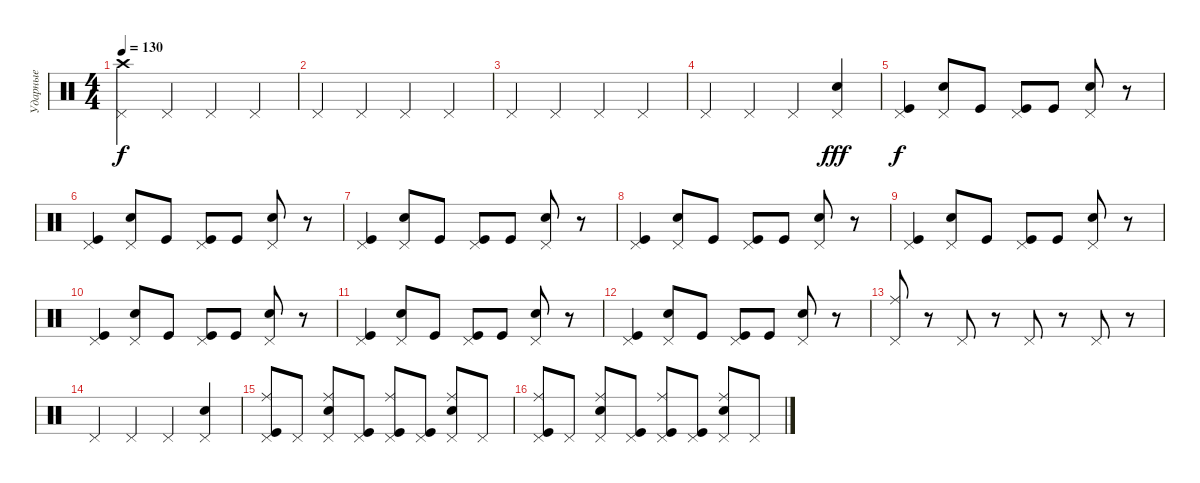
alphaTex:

\track ("Ударные" "Ударные") {instrument percussion}
\staff {score}
\articulation defaults
\ts (4 4)
\tempo 130
\clef neutral
\ks c
("Crash high (hit)" "Pedal Hi-Hat (hit)").4{dy f} "Pedal Hi-Hat (hit)".4 "Pedal Hi-Hat (hit)".4 "Pedal Hi-Hat (hit)".4 |
"Pedal Hi-Hat (hit)".4 "Pedal Hi-Hat (hit)".4 "Pedal Hi-Hat (hit)".4 "Pedal Hi-Hat (hit)".4 |
"Pedal Hi-Hat (hit)".4 "Pedal Hi-Hat (hit)".4 "Pedal Hi-Hat (hit)".4 "Pedal Hi-Hat (hit)".4 |
"Pedal Hi-Hat (hit)".4 "Pedal Hi-Hat (hit)".4 "Pedal Hi-Hat (hit)".4 ("Electric Snare (hit)" "Pedal Hi-Hat (hit)").4{dy fff} |
("Pedal Hi-Hat (hit)" "Kick (hit)").4{dy f} ("Pedal Hi-Hat (hit)" "Electric Snare (hit)").8 "Kick (hit)".8 ("Pedal Hi-Hat (hit)" "Kick (hit)").8 "Kick (hit)".8 ("Pedal Hi-Hat (hit)" "Electric Snare (hit)").8 r.8 |
("Pedal Hi-Hat (hit)" "Kick (hit)").4 ("Pedal Hi-Hat (hit)" "Electric Snare (hit)").8 "Kick (hit)".8 ("Pedal Hi-Hat (hit)" "Kick (hit)").8 "Kick (hit)".8 ("Pedal Hi-Hat (hit)" "Electric Snare (hit)").8 r.8 |
("Pedal Hi-Hat (hit)" "Kick (hit)").4 ("Pedal Hi-Hat (hit)" "Electric Snare (hit)").8 "Kick (hit)".8 ("Pedal Hi-Hat (hit)" "Kick (hit)").8 "Kick (hit)".8 ("Pedal Hi-Hat (hit)" "Electric Snare (hit)").8 r.8 |
("Pedal Hi-Hat (hit)" "Kick (hit)").4 ("Pedal Hi-Hat (hit)" "Electric Snare (hit)").8 "Kick (hit)".8 ("Pedal Hi-Hat (hit)" "Kick (hit)").8 "Kick (hit)".8 ("Pedal Hi-Hat (hit)" "Electric Snare (hit)").8 r.8 |
("Pedal Hi-Hat (hit)" "Kick (hit)").4 ("Pedal Hi-Hat (hit)" "Electric Snare (hit)").8 "Kick (hit)".8 ("Pedal Hi-Hat (hit)" "Kick (hit)").8 "Kick (hit)".8 ("Pedal Hi-Hat (hit)" "Electric Snare (hit)").8 r.8 |
("Pedal Hi-Hat (hit)" "Kick (hit)").4 ("Pedal Hi-Hat (hit)" "Electric Snare (hit)").8 "Kick (hit)".8 ("Pedal Hi-Hat (hit)" "Kick (hit)").8 "Kick (hit)".8 ("Pedal Hi-Hat (hit)" "Electric Snare (hit)").8 r.8 |
("Pedal Hi-Hat (hit)" "Kick (hit)").4 ("Pedal Hi-Hat (hit)" "Electric Snare (hit)").8 "Kick (hit)".8 ("Pedal Hi-Hat (hit)" "Kick (hit)").8 "Kick (hit)".8 ("Pedal Hi-Hat (hit)" "Electric Snare (hit)").8 r.8 |
("Pedal Hi-Hat (hit)" "Kick (hit)").4 ("Pedal Hi-Hat (hit)" "Electric Snare (hit)").8 "Kick (hit)".8 ("Pedal Hi-Hat (hit)" "Kick (hit)").8 "Kick (hit)".8 ("Pedal Hi-Hat (hit)" "Electric Snare (hit)").8 r.8 |
("Pedal Hi-Hat (hit)" "Ride (middle)").8 r.8 "Pedal Hi-Hat (hit)".8 r.8 "Pedal Hi-Hat (hit)".8 r.8 "Pedal Hi-Hat (hit)".8 r.8 |
"Pedal Hi-Hat (hit)".4 "Pedal Hi-Hat (hit)".4 "Pedal Hi-Hat (hit)".4 ("Electric Snare (hit)" "Pedal Hi-Hat (hit)").4 |
("Ride (middle)" "Pedal Hi-Hat (hit)" "Kick (hit)").8 "Pedal Hi-Hat (hit)".8 ("Ride (middle)" "Pedal Hi-Hat (hit)" "Electric Snare (hit)").8 ("Pedal Hi-Hat (hit)" "Kick (hit)").8 ("Ride (middle)" "Pedal Hi-Hat (hit)" "Kick (hit)").8 ("Pedal Hi-Hat (hit)" "Kick (hit)").8 ("Ride (middle)" "Pedal Hi-Hat (hit)" "Electric Snare (hit)").8 "Pedal Hi-Hat (hit)".8 |
("Ride (middle)" "Pedal Hi-Hat (hit)" "Kick (hit)").8 "Pedal Hi-Hat (hit)".8 ("Ride (middle)" "Pedal Hi-Hat (hit)" "Electric Snare (hit)").8 ("Pedal Hi-Hat (hit)" "Kick (hit)").8 ("Ride (middle)" "Pedal Hi-Hat (hit)" "Kick (hit)").8 ("Pedal Hi-Hat (hit)" "Kick (hit)").8 ("Ride (middle)" "Pedal Hi-Hat (hit)" "Electric Snare (hit)").8 "Pedal Hi-Hat (hit)".8
